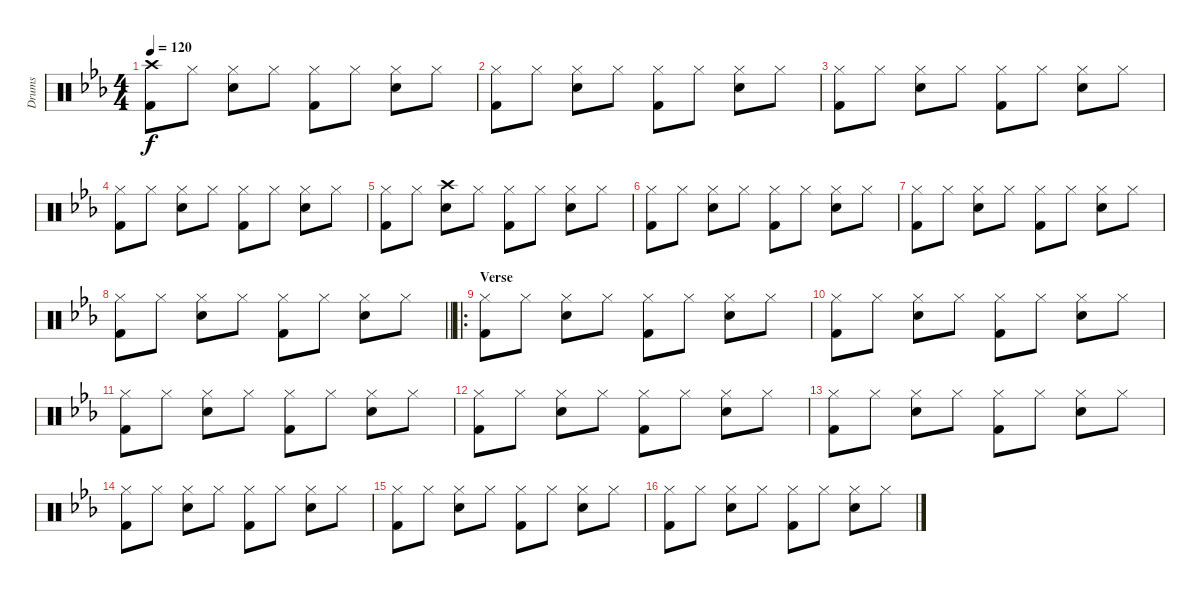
\track ("Drums" "Drums") {instrument percussion}
\staff {score}
\articulation defaults
\ts (4 4)
\tempo 120
\clef neutral
\ks eb
("Crash high (hit)" "Kick (hit) 2").8{dy f} "Hi-Hat (closed)".8 ("Hi-Hat (closed)" "Snare (hit) 2").8 "Hi-Hat (closed)".8 ("Hi-Hat (closed)" "Kick (hit) 2").8 "Hi-Hat (closed)".8 ("Hi-Hat (closed)" "Snare (hit) 2").8 "Hi-Hat (closed)".8 |
("Hi-Hat (closed)" "Kick (hit) 2").8 "Hi-Hat (closed)".8 ("Hi-Hat (closed)" "Snare (hit) 2").8 "Hi-Hat (closed)".8 ("Hi-Hat (closed)" "Kick (hit) 2").8 "Hi-Hat (closed)".8 ("Hi-Hat (closed)" "Snare (hit) 2").8 "Hi-Hat (closed)".8 |
("Hi-Hat (closed)" "Kick (hit) 2").8 "Hi-Hat (closed)".8 ("Hi-Hat (closed)" "Snare (hit) 2").8 "Hi-Hat (closed)".8 ("Hi-Hat (closed)" "Kick (hit) 2").8 "Hi-Hat (closed)".8 ("Hi-Hat (closed)" "Snare (hit) 2").8 "Hi-Hat (closed)".8 |
("Hi-Hat (closed)" "Kick (hit) 2").8 "Hi-Hat (closed)".8 ("Hi-Hat (closed)" "Snare (hit) 2").8 "Hi-Hat (closed)".8 ("Hi-Hat (closed)" "Kick (hit) 2").8 "Hi-Hat (closed)".8 ("Hi-Hat (closed)" "Snare (hit) 2").8 "Hi-Hat (closed)".8 |
("Hi-Hat (closed)" "Kick (hit) 2").8 "Hi-Hat (closed)".8 ("Crash high (hit)" "Snare (hit) 2").8 "Hi-Hat (closed)".8 ("Hi-Hat (closed)" "Kick (hit) 2").8 "Hi-Hat (closed)".8 ("Hi-Hat (closed)" "Snare (hit) 2").8 "Hi-Hat (closed)".8 |
("Hi-Hat (closed)" "Kick (hit) 2").8 "Hi-Hat (closed)".8 ("Hi-Hat (closed)" "Snare (hit) 2").8 "Hi-Hat (closed)".8 ("Hi-Hat (closed)" "Kick (hit) 2").8 "Hi-Hat (closed)".8 ("Hi-Hat (closed)" "Snare (hit) 2").8 "Hi-Hat (closed)".8 |
("Hi-Hat (closed)" "Kick (hit) 2").8 "Hi-Hat (closed)".8 ("Hi-Hat (closed)" "Snare (hit) 2").8 "Hi-Hat (closed)".8 ("Hi-Hat (closed)" "Kick (hit) 2").8 "Hi-Hat (closed)".8 ("Hi-Hat (closed)" "Snare (hit) 2").8 "Hi-Hat (closed)".8 |
\barLineRight lightlight
("Hi-Hat (closed)" "Kick (hit) 2").8 "Hi-Hat (closed)".8 ("Hi-Hat (closed)" "Snare (hit) 2").8 "Hi-Hat (closed)".8 ("Hi-Hat (closed)" "Kick (hit) 2").8 "Hi-Hat (closed)".8 ("Hi-Hat (closed)" "Snare (hit) 2").8 "Hi-Hat (closed)".8 |
\ro
\section ("" "Verse")
("Hi-Hat (closed)" "Kick (hit) 2").8 "Hi-Hat (closed)".8 ("Hi-Hat (closed)" "Snare (hit) 2").8 "Hi-Hat (closed)".8 ("Hi-Hat (closed)" "Kick (hit) 2").8 "Hi-Hat (closed)".8 ("Hi-Hat (closed)" "Snare (hit) 2").8 "Hi-Hat (closed)".8 |
("Hi-Hat (closed)" "Kick (hit) 2").8 "Hi-Hat (closed)".8 ("Hi-Hat (closed)" "Snare (hit) 2").8 "Hi-Hat (closed)".8 ("Hi-Hat (closed)" "Kick (hit) 2").8 "Hi-Hat (closed)".8 ("Hi-Hat (closed)" "Snare (hit) 2").8 "Hi-Hat (closed)".8 |
("Hi-Hat (closed)" "Kick (hit) 2").8 "Hi-Hat (closed)".8 ("Hi-Hat (closed)" "Snare (hit) 2").8 "Hi-Hat (closed)".8 ("Hi-Hat (closed)" "Kick (hit) 2").8 "Hi-Hat (closed)".8 ("Hi-Hat (closed)" "Snare (hit) 2").8 "Hi-Hat (closed)".8 |
("Hi-Hat (closed)" "Kick (hit) 2").8 "Hi-Hat (closed)".8 ("Hi-Hat (closed)" "Snare (hit) 2").8 "Hi-Hat (closed)".8 ("Hi-Hat (closed)" "Kick (hit) 2").8 "Hi-Hat (closed)".8 ("Hi-Hat (closed)" "Snare (hit) 2").8 "Hi-Hat (closed)".8 |
("Hi-Hat (closed)" "Kick (hit) 2").8 "Hi-Hat (closed)".8 ("Hi-Hat (closed)" "Snare (hit) 2").8 "Hi-Hat (closed)".8 ("Hi-Hat (closed)" "Kick (hit) 2").8 "Hi-Hat (closed)".8 ("Hi-Hat (closed)" "Snare (hit) 2").8 "Hi-Hat (closed)".8 |
("Hi-Hat (closed)" "Kick (hit) 2").8 "Hi-Hat (closed)".8 ("Hi-Hat (closed)" "Snare (hit) 2").8 "Hi-Hat (closed)".8 ("Hi-Hat (closed)" "Kick (hit) 2").8 "Hi-Hat (closed)".8 ("Hi-Hat (closed)" "Snare (hit) 2").8 "Hi-Hat (closed)".8 |
("Hi-Hat (closed)" "Kick (hit) 2").8 "Hi-Hat (closed)".8 ("Hi-Hat (closed)" "Snare (hit) 2").8 "Hi-Hat (closed)".8 ("Hi-Hat (closed)" "Kick (hit) 2").8 "Hi-Hat (closed)".8 ("Hi-Hat (closed)" "Snare (hit) 2").8 "Hi-Hat (closed)".8 |
("Hi-Hat (closed)" "Kick (hit) 2").8 "Hi-Hat (closed)".8 ("Hi-Hat (closed)" "Snare (hit) 2").8 "Hi-Hat (closed)".8 ("Hi-Hat (closed)" "Kick (hit) 2").8 "Hi-Hat (closed)".8 ("Hi-Hat (closed)" "Snare (hit) 2").8 "Hi-Hat (closed)".8
